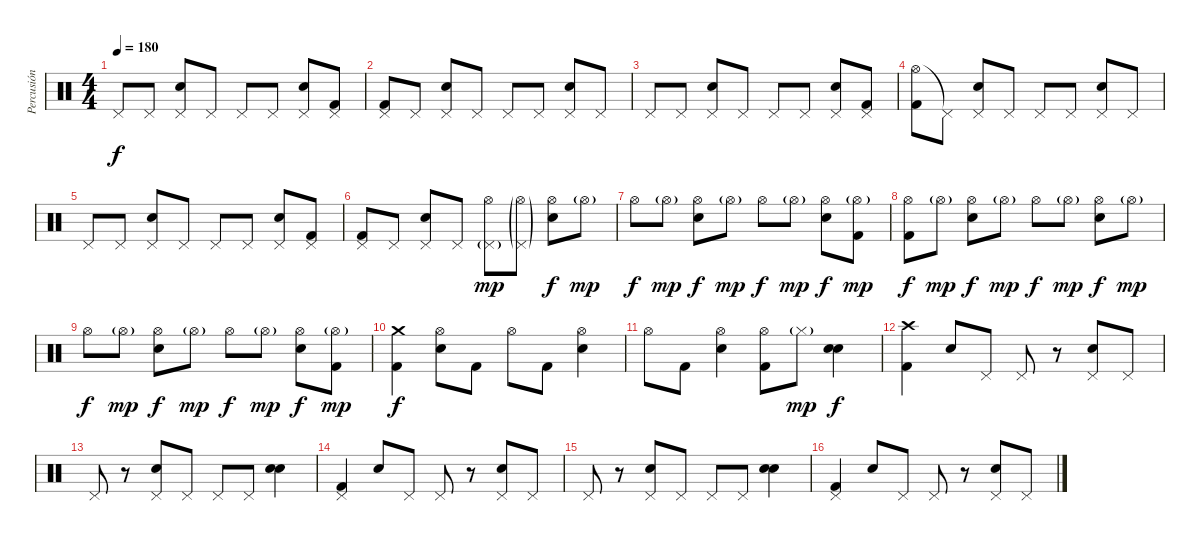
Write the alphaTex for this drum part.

\track ("Percusión" "Percusión") {instrument percussion}
\staff {score}
\articulation defaults
\ts (4 4)
\tempo 180
\clef neutral
\ks c "Pedal Hi-Hat (hit)".8{dy f} "Pedal Hi-Hat (hit)".8
("Pedal Hi-Hat (hit)" "Electric Snare (hit)").8 "Pedal Hi-Hat (hit)".8 "Pedal Hi-Hat (hit)".8 "Pedal Hi-Hat (hit)".8 ("Pedal Hi-Hat (hit)" "Electric Snare (hit)").8 ("Pedal Hi-Hat (hit)" "Kick (hit) 2").8 |
("Pedal Hi-Hat (hit)" "Kick (hit) 2").8 "Pedal Hi-Hat (hit)".8 ("Pedal Hi-Hat (hit)" "Electric Snare (hit)").8 "Pedal Hi-Hat (hit)".8 "Pedal Hi-Hat (hit)".8 "Pedal Hi-Hat (hit)".8 ("Pedal Hi-Hat (hit)" "Electric Snare (hit)").8 "Pedal Hi-Hat (hit)".8 |
"Pedal Hi-Hat (hit)".8 "Pedal Hi-Hat (hit)".8 ("Pedal Hi-Hat (hit)" "Electric Snare (hit)").8 "Pedal Hi-Hat (hit)".8 "Pedal Hi-Hat (hit)".8 "Pedal Hi-Hat (hit)".8 ("Pedal Hi-Hat (hit)" "Electric Snare (hit)").8 ("Pedal Hi-Hat (hit)" "Kick (hit) 2").8 |
("Hi-Hat (open)" "Kick (hit) 2").8 "Pedal Hi-Hat (hit)"{t}.8 ("Pedal Hi-Hat (hit)" "Electric Snare (hit)").8 "Pedal Hi-Hat (hit)".8 "Pedal Hi-Hat (hit)".8 "Pedal Hi-Hat (hit)".8 ("Pedal Hi-Hat (hit)" "Electric Snare (hit)").8 "Pedal Hi-Hat (hit)".8 |
"Pedal Hi-Hat (hit)".8 "Pedal Hi-Hat (hit)".8 ("Pedal Hi-Hat (hit)" "Electric Snare (hit)").8 "Pedal Hi-Hat (hit)".8 "Pedal Hi-Hat (hit)".8 "Pedal Hi-Hat (hit)".8 ("Pedal Hi-Hat (hit)" "Electric Snare (hit)").8 ("Pedal Hi-Hat (hit)" "Kick (hit) 2").8 |
("Pedal Hi-Hat (hit)" "Kick (hit) 2").8 "Pedal Hi-Hat (hit)".8 ("Pedal Hi-Hat (hit)" "Electric Snare (hit)").8 "Pedal Hi-Hat (hit)".8 ("Pedal Hi-Hat (hit)"{g} "Hi-Hat (open)").8{dy mp} ("Pedal Hi-Hat (hit)"{g} "Hi-Hat (open)"{g}).8 ("Hi-Hat (open)" "Electric Snare (hit)").8{dy f} "Hi-Hat (open)"{g}.8{dy mp} |
"Hi-Hat (open)".8{dy f} "Hi-Hat (open)"{g}.8{dy mp} ("Hi-Hat (open)" "Electric Snare (hit)").8{dy f} "Hi-Hat (open)"{g}.8{dy mp} "Hi-Hat (open)".8{dy f} "Hi-Hat (open)"{g}.8{dy mp} ("Hi-Hat (open)" "Electric Snare (hit)").8{dy f} ("Hi-Hat (open)"{g} "Kick (hit) 2").8{dy mp} |
("Hi-Hat (open)" "Kick (hit) 2").8{dy f} "Hi-Hat (open)"{g}.8{dy mp} ("Hi-Hat (open)" "Electric Snare (hit)").8{dy f} "Hi-Hat (open)"{g}.8{dy mp} "Hi-Hat (open)".8{dy f} "Hi-Hat (open)"{g}.8{dy mp} ("Hi-Hat (open)" "Electric Snare (hit)").8{dy f} "Hi-Hat (open)"{g}.8{dy mp} |
"Hi-Hat (open)".8{dy f} "Hi-Hat (open)"{g}.8{dy mp} ("Hi-Hat (open)" "Electric Snare (hit)").8{dy f} "Hi-Hat (open)"{g}.8{dy mp} "Hi-Hat (open)".8{dy f} "Hi-Hat (open)"{g}.8{dy mp} ("Hi-Hat (open)" "Electric Snare (hit)").8{dy f} ("Hi-Hat (open)"{g} "Kick (hit) 2").8{dy mp} |
("Crash medium (hit)" "Kick (hit) 2").4{dy f} ("Hi-Hat (open)" "Electric Snare (hit)").8 "Kick (hit) 2".8 "Hi-Hat (open)".8 "Kick (hit) 2".8 ("Hi-Hat (open)" "Electric Snare (hit)").4 |
"Hi-Hat (open)".8 "Kick (hit) 2".8 ("Hi-Hat (open)" "Electric Snare (hit)").4 ("Hi-Hat (open)" "Kick (hit) 2").8 "Hi-Hat (closed)"{g}.8{dy mp} ("Electric Snare (hit)" "Electric Snare (hit)").4{bd 240 dy f} |
("Crash high (hit)" "Kick (hit) 2").4 "Electric Snare (hit)".8 "Pedal Hi-Hat (hit)".8 "Pedal Hi-Hat (hit)".8 r.8 ("Pedal Hi-Hat (hit)" "Electric Snare (hit)").8 "Pedal Hi-Hat (hit)".8 |
"Pedal Hi-Hat (hit)".8 r.8 ("Pedal Hi-Hat (hit)" "Electric Snare (hit)").8 "Pedal Hi-Hat (hit)".8 "Pedal Hi-Hat (hit)".8 "Pedal Hi-Hat (hit)".8 ("Electric Snare (hit)" "Electric Snare (hit)").4{bd 240} |
("Pedal Hi-Hat (hit)" "Kick (hit) 2").4 "Electric Snare (hit)".8 "Pedal Hi-Hat (hit)".8 "Pedal Hi-Hat (hit)".8 r.8 ("Pedal Hi-Hat (hit)" "Electric Snare (hit)").8 "Pedal Hi-Hat (hit)".8 |
"Pedal Hi-Hat (hit)".8 r.8 ("Pedal Hi-Hat (hit)" "Electric Snare (hit)").8 "Pedal Hi-Hat (hit)".8 "Pedal Hi-Hat (hit)".8 "Pedal Hi-Hat (hit)".8 ("Electric Snare (hit)" "Electric Snare (hit)").4{bd 240} |
("Pedal Hi-Hat (hit)" "Kick (hit) 2").4 "Electric Snare (hit)".8 "Pedal Hi-Hat (hit)".8 "Pedal Hi-Hat (hit)".8 r.8 ("Pedal Hi-Hat (hit)" "Electric Snare (hit)").8 "Pedal Hi-Hat (hit)".8
